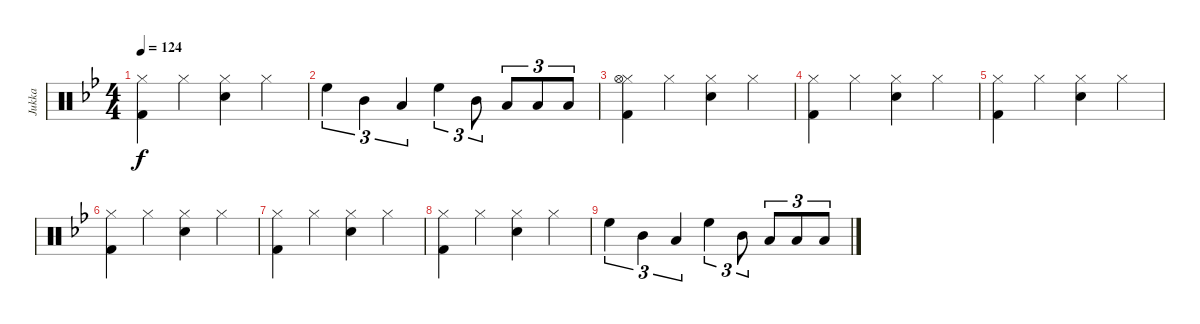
\track ("Jukka" "Jukka") {instrument percussion}
\staff {score}
\articulation defaults
\ts (4 4)
\tempo 124
\clef neutral
\ks bb
("Hi-Hat (closed)" "Kick (hit) 2").4{dy f} "Hi-Hat (closed)".4 ("Hi-Hat (closed)" "Snare (hit) 2").4 "Hi-Hat (closed)".4 |
"High Floor Tom (hit)".4{tu (3 2)} "Mid Tom (hit)".4{tu (3 2)} "Low Tom (hit)".4{tu (3 2)} "High Floor Tom (hit)".4{tu (3 2)} "Mid Tom (hit)".8{tu (3 2)} "Low Tom (hit)".8{tu (3 2)} "Low Tom (hit)".8{tu (3 2)} "Low Floor Tom (hit)".8{tu (3 2)} |
("Hi-Hat (closed)" "Hi-Hat (open)" "Kick (hit) 2").4 "Hi-Hat (closed)".4 ("Hi-Hat (closed)" "Snare (hit) 2").4 "Hi-Hat (closed)".4 |
("Hi-Hat (closed)" "Kick (hit) 2").4 "Hi-Hat (closed)".4 ("Hi-Hat (closed)" "Snare (hit) 2").4 "Hi-Hat (closed)".4 |
("Hi-Hat (closed)" "Kick (hit) 2").4 "Hi-Hat (closed)".4 ("Hi-Hat (closed)" "Snare (hit) 2").4 "Hi-Hat (closed)".4 |
("Hi-Hat (closed)" "Kick (hit) 2").4 "Hi-Hat (closed)".4 ("Hi-Hat (closed)" "Snare (hit) 2").4 "Hi-Hat (closed)".4 |
("Hi-Hat (closed)" "Kick (hit) 2").4 "Hi-Hat (closed)".4 ("Hi-Hat (closed)" "Snare (hit) 2").4 "Hi-Hat (closed)".4 |
("Hi-Hat (closed)" "Kick (hit) 2").4 "Hi-Hat (closed)".4 ("Hi-Hat (closed)" "Snare (hit) 2").4 "Hi-Hat (closed)".4 |
"High Floor Tom (hit)".4{tu (3 2)} "Mid Tom (hit)".4{tu (3 2)} "Low Tom (hit)".4{tu (3 2)} "High Floor Tom (hit)".4{tu (3 2)} "Mid Tom (hit)".8{tu (3 2)} "Low Tom (hit)".8{tu (3 2)} "Low Tom (hit)".8{tu (3 2)} "Low Floor Tom (hit)".8{tu (3 2)}
